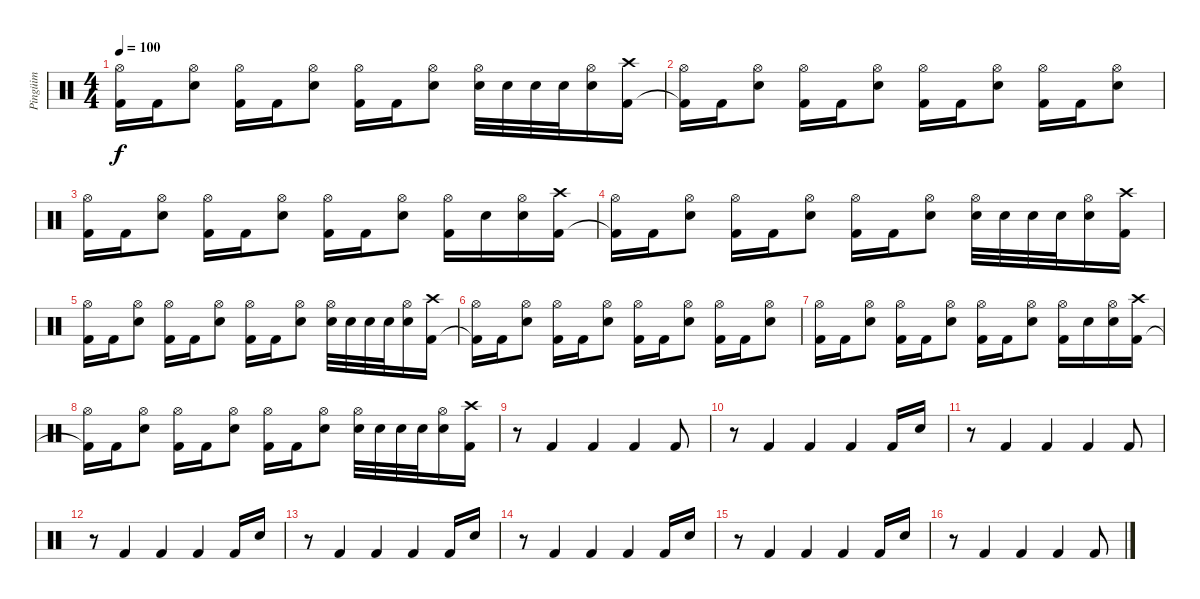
\track ("Pingüim" "Pingüim") {instrument percussion}
\staff {score}
\articulation defaults
\ts (4 4)
\tempo 100
\clef neutral
\ks c
("Kick (hit) 2" "Hi-Hat (open)").16{dy f} "Kick (hit) 2".16 ("Snare (hit) 2" "Hi-Hat (open)").8 ("Kick (hit) 2" "Hi-Hat (open)").16 "Kick (hit) 2".16 ("Snare (hit) 2" "Hi-Hat (open)").8 ("Kick (hit) 2" "Hi-Hat (open)").16 "Kick (hit) 2".16 ("Snare (hit) 2" "Hi-Hat (open)").8 ("Snare (hit) 2" "Hi-Hat (open)").32 "Snare (hit) 2".32 "Snare (hit) 2".32 "Snare (hit) 2".32 ("Snare (hit) 2" "Hi-Hat (open)").16 ("Kick (hit) 2" "Crash high (hit)").16 |
("Kick (hit) 2"{t} "Hi-Hat (open)").16 "Kick (hit) 2".16 ("Snare (hit) 2" "Hi-Hat (open)").8 ("Kick (hit) 2" "Hi-Hat (open)").16 "Kick (hit) 2".16 ("Snare (hit) 2" "Hi-Hat (open)").8 ("Kick (hit) 2" "Hi-Hat (open)").16 "Kick (hit) 2".16 ("Snare (hit) 2" "Hi-Hat (open)").8 ("Kick (hit) 2" "Hi-Hat (open)").16 "Kick (hit) 2".16 ("Snare (hit) 2" "Hi-Hat (open)").8 |
("Kick (hit) 2" "Hi-Hat (open)").16 "Kick (hit) 2".16 ("Snare (hit) 2" "Hi-Hat (open)").8 ("Kick (hit) 2" "Hi-Hat (open)").16 "Kick (hit) 2".16 ("Snare (hit) 2" "Hi-Hat (open)").8 ("Kick (hit) 2" "Hi-Hat (open)").16 "Kick (hit) 2".16 ("Snare (hit) 2" "Hi-Hat (open)").8 ("Kick (hit) 2" "Hi-Hat (open)").16 "Snare (hit) 2".16 ("Snare (hit) 2" "Hi-Hat (open)").16 ("Kick (hit) 2" "Crash high (hit)").16 |
("Kick (hit) 2"{t} "Hi-Hat (open)").16 "Kick (hit) 2".16 ("Snare (hit) 2" "Hi-Hat (open)").8 ("Kick (hit) 2" "Hi-Hat (open)").16 "Kick (hit) 2".16 ("Snare (hit) 2" "Hi-Hat (open)").8 ("Kick (hit) 2" "Hi-Hat (open)").16 "Kick (hit) 2".16 ("Snare (hit) 2" "Hi-Hat (open)").8 ("Snare (hit) 2" "Hi-Hat (open)").32 "Snare (hit) 2".32 "Snare (hit) 2".32 "Snare (hit) 2".32 ("Snare (hit) 2" "Hi-Hat (open)").16 ("Kick (hit) 2" "Crash high (hit)").16 |
("Kick (hit) 2" "Hi-Hat (open)").16 "Kick (hit) 2".16 ("Snare (hit) 2" "Hi-Hat (open)").8 ("Kick (hit) 2" "Hi-Hat (open)").16 "Kick (hit) 2".16 ("Snare (hit) 2" "Hi-Hat (open)").8 ("Kick (hit) 2" "Hi-Hat (open)").16 "Kick (hit) 2".16 ("Snare (hit) 2" "Hi-Hat (open)").8 ("Snare (hit) 2" "Hi-Hat (open)").32 "Snare (hit) 2".32 "Snare (hit) 2".32 "Snare (hit) 2".32 ("Snare (hit) 2" "Hi-Hat (open)").16 ("Kick (hit) 2" "Crash high (hit)").16 |
("Kick (hit) 2"{t} "Hi-Hat (open)").16 "Kick (hit) 2".16 ("Snare (hit) 2" "Hi-Hat (open)").8 ("Kick (hit) 2" "Hi-Hat (open)").16 "Kick (hit) 2".16 ("Snare (hit) 2" "Hi-Hat (open)").8 ("Kick (hit) 2" "Hi-Hat (open)").16 "Kick (hit) 2".16 ("Snare (hit) 2" "Hi-Hat (open)").8 ("Kick (hit) 2" "Hi-Hat (open)").16 "Kick (hit) 2".16 ("Snare (hit) 2" "Hi-Hat (open)").8 |
("Kick (hit) 2" "Hi-Hat (open)").16 "Kick (hit) 2".16 ("Snare (hit) 2" "Hi-Hat (open)").8 ("Kick (hit) 2" "Hi-Hat (open)").16 "Kick (hit) 2".16 ("Snare (hit) 2" "Hi-Hat (open)").8 ("Kick (hit) 2" "Hi-Hat (open)").16 "Kick (hit) 2".16 ("Snare (hit) 2" "Hi-Hat (open)").8 ("Kick (hit) 2" "Hi-Hat (open)").16 "Snare (hit) 2".16 ("Snare (hit) 2" "Hi-Hat (open)").16 ("Kick (hit) 2" "Crash high (hit)").16 |
("Kick (hit) 2"{t} "Hi-Hat (open)").16 "Kick (hit) 2".16 ("Snare (hit) 2" "Hi-Hat (open)").8 ("Kick (hit) 2" "Hi-Hat (open)").16 "Kick (hit) 2".16 ("Snare (hit) 2" "Hi-Hat (open)").8 ("Kick (hit) 2" "Hi-Hat (open)").16 "Kick (hit) 2".16 ("Snare (hit) 2" "Hi-Hat (open)").8 ("Snare (hit) 2" "Hi-Hat (open)").32 "Snare (hit) 2".32 "Snare (hit) 2".32 "Snare (hit) 2".32 ("Snare (hit) 2" "Hi-Hat (open)").16 ("Kick (hit) 2" "Crash high (hit)").16 |
r.8 "Kick (hit) 2".4 "Kick (hit) 2".4 "Kick (hit) 2".4 "Kick (hit) 2".8 |
r.8 "Kick (hit) 2".4 "Kick (hit) 2".4 "Kick (hit) 2".4 "Kick (hit) 2".16 "Snare (hit) 2".16 |
r.8 "Kick (hit) 2".4 "Kick (hit) 2".4 "Kick (hit) 2".4 "Kick (hit) 2".8 |
r.8 "Kick (hit) 2".4 "Kick (hit) 2".4 "Kick (hit) 2".4 "Kick (hit) 2".16 "Snare (hit) 2".16 |
r.8 "Kick (hit) 2".4 "Kick (hit) 2".4 "Kick (hit) 2".4 "Kick (hit) 2".16 "Snare (hit) 2".16 |
r.8 "Kick (hit) 2".4 "Kick (hit) 2".4 "Kick (hit) 2".4 "Kick (hit) 2".16 "Snare (hit) 2".16 |
r.8 "Kick (hit) 2".4 "Kick (hit) 2".4 "Kick (hit) 2".4 "Kick (hit) 2".16 "Snare (hit) 2".16 |
r.8 "Kick (hit) 2".4 "Kick (hit) 2".4 "Kick (hit) 2".4 "Kick (hit) 2".8
